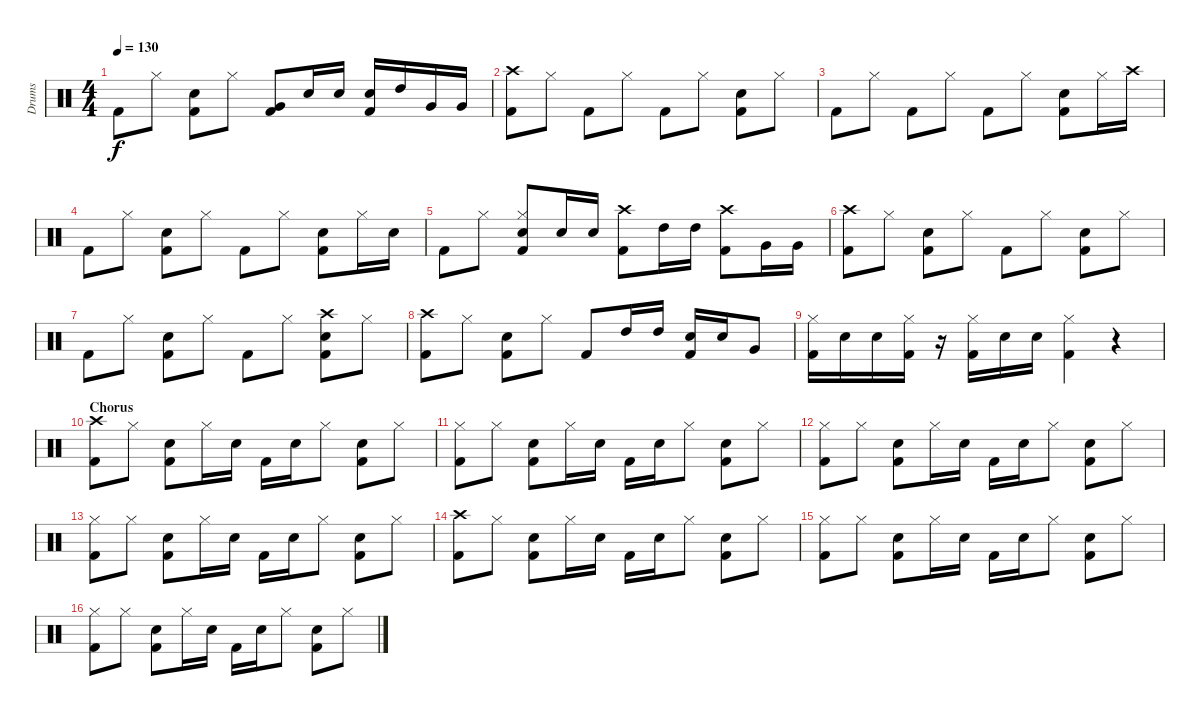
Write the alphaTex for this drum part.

\track ("Drums" "Drums") {instrument percussion}
\staff {score}
\articulation defaults
\ts (4 4)
\tempo 130
\clef neutral
\ks c "Kick (hit) 2".8{dy f} "Hi-Hat (closed)".8
("Snare (hit) 2" "Kick (hit) 2").8 "Hi-Hat (closed)".8 ("Very Low Tom (hit)" "Kick (hit) 2").8 "Snare (hit) 2".16 "Snare (hit) 2".16 ("Snare (hit) 2" "Kick (hit) 2").16 "High Tom (hit)".16 "Very Low Tom (hit)".16 "Very Low Tom (hit)".16 |
("Crash high (hit)" "Kick (hit) 2").8 "Hi-Hat (closed)".8 "Kick (hit) 2".8 "Hi-Hat (closed)".8 "Kick (hit) 2".8 "Hi-Hat (closed)".8 ("Snare (hit) 2" "Kick (hit) 2").8 "Hi-Hat (closed)".8 |
"Kick (hit) 2".8 "Hi-Hat (closed)".8 "Kick (hit) 2".8 "Hi-Hat (closed)".8 "Kick (hit) 2".8 "Hi-Hat (closed)".8 ("Snare (hit) 2" "Kick (hit) 2").8 "Hi-Hat (closed)".16 "Crash high (hit)".16 |
"Kick (hit) 2".8 "Hi-Hat (closed)".8 ("Snare (hit) 2" "Kick (hit) 2").8 "Hi-Hat (closed)".8 "Kick (hit) 2".8 "Hi-Hat (closed)".8 ("Snare (hit) 2" "Kick (hit) 2").8 "Hi-Hat (closed)".16 "Snare (hit) 2".16 |
"Kick (hit) 2".8 "Hi-Hat (closed)".8 ("Hi-Hat (closed)" "Snare (hit) 2" "Kick (hit) 2").8 "Snare (hit) 2".16 "Snare (hit) 2".16 ("Crash high (hit)" "Kick (hit) 2").8 "High Tom (hit)".16 "High Tom (hit)".16 ("Crash high (hit)" "Kick (hit) 2").8 "Very Low Tom (hit)".16 "Very Low Tom (hit)".16 |
("Crash high (hit)" "Kick (hit) 2").8 "Hi-Hat (closed)".8 ("Snare (hit) 2" "Kick (hit) 2").8 "Hi-Hat (closed)".8 "Kick (hit) 2".8 "Hi-Hat (closed)".8 ("Snare (hit) 2" "Kick (hit) 2").8 "Hi-Hat (closed)".8 |
"Kick (hit) 2".8 "Hi-Hat (closed)".8 ("Snare (hit) 2" "Kick (hit) 2").8 "Hi-Hat (closed)".8 "Kick (hit) 2".8 "Hi-Hat (closed)".8 ("Crash high (hit)" "Snare (hit) 2" "Kick (hit) 2").8 "Hi-Hat (closed)".8 |
("Crash high (hit)" "Kick (hit) 2").8 "Hi-Hat (closed)".8 ("Snare (hit) 2" "Kick (hit) 2").8 "Hi-Hat (closed)".8 "Kick (hit) 2".8 "High Tom (hit)".16 "High Tom (hit)".16 ("Snare (hit) 2" "Kick (hit) 2").16 "Snare (hit) 2".16 "Very Low Tom (hit)".8 |
("Hi-Hat (closed)" "Kick (hit) 2").16 "Snare (hit) 2".16 "Snare (hit) 2".16 ("Hi-Hat (closed)" "Kick (hit) 2").16 r.16 ("Hi-Hat (closed)" "Kick (hit) 2").16 "Snare (hit) 2".16 "Snare (hit) 2".16 ("Hi-Hat (closed)" "Kick (hit) 2").4 r.4 |
\section ("" "Chorus")
("Crash high (hit)" "Kick (hit) 2").8 "Hi-Hat (closed)".8 ("Snare (hit) 2" "Kick (hit) 2").8 "Hi-Hat (closed)".16 "Snare (hit) 2".16 "Kick (hit) 2".16 "Snare (hit) 2".16 "Hi-Hat (closed)".8 ("Snare (hit) 2" "Kick (hit) 2").8 "Hi-Hat (closed)".8 |
("Hi-Hat (closed)" "Kick (hit) 2").8 "Hi-Hat (closed)".8 ("Snare (hit) 2" "Kick (hit) 2").8 "Hi-Hat (closed)".16 "Snare (hit) 2".16 "Kick (hit) 2".16 "Snare (hit) 2".16 "Hi-Hat (closed)".8 ("Snare (hit) 2" "Kick (hit) 2").8 "Hi-Hat (closed)".8 |
("Hi-Hat (closed)" "Kick (hit) 2").8 "Hi-Hat (closed)".8 ("Snare (hit) 2" "Kick (hit) 2").8 "Hi-Hat (closed)".16 "Snare (hit) 2".16 "Kick (hit) 2".16 "Snare (hit) 2".16 "Hi-Hat (closed)".8 ("Snare (hit) 2" "Kick (hit) 2").8 "Hi-Hat (closed)".8 |
("Hi-Hat (closed)" "Kick (hit) 2").8 "Hi-Hat (closed)".8 ("Snare (hit) 2" "Kick (hit) 2").8 "Hi-Hat (closed)".16 "Snare (hit) 2".16 "Kick (hit) 2".16 "Snare (hit) 2".16 "Hi-Hat (closed)".8 ("Snare (hit) 2" "Kick (hit) 2").8 "Hi-Hat (closed)".8 |
("Crash high (hit)" "Kick (hit) 2").8 "Hi-Hat (closed)".8 ("Snare (hit) 2" "Kick (hit) 2").8 "Hi-Hat (closed)".16 "Snare (hit) 2".16 "Kick (hit) 2".16 "Snare (hit) 2".16 "Hi-Hat (closed)".8 ("Snare (hit) 2" "Kick (hit) 2").8 "Hi-Hat (closed)".8 |
("Hi-Hat (closed)" "Kick (hit) 2").8 "Hi-Hat (closed)".8 ("Snare (hit) 2" "Kick (hit) 2").8 "Hi-Hat (closed)".16 "Snare (hit) 2".16 "Kick (hit) 2".16 "Snare (hit) 2".16 "Hi-Hat (closed)".8 ("Snare (hit) 2" "Kick (hit) 2").8 "Hi-Hat (closed)".8 |
("Hi-Hat (closed)" "Kick (hit) 2").8 "Hi-Hat (closed)".8 ("Snare (hit) 2" "Kick (hit) 2").8 "Hi-Hat (closed)".16 "Snare (hit) 2".16 "Kick (hit) 2".16 "Snare (hit) 2".16 "Hi-Hat (closed)".8 ("Snare (hit) 2" "Kick (hit) 2").8 "Hi-Hat (closed)".8
